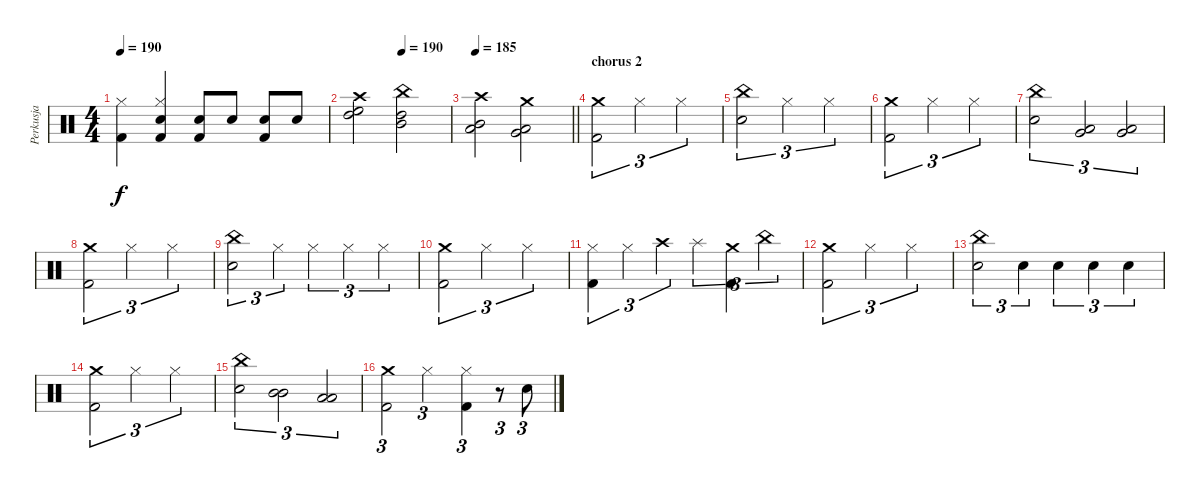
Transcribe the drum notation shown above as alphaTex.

\track ("Perkusja" "Perkusja") {instrument percussion}
\staff {score}
\articulation defaults
\ts (4 4)
\tempo 190
\clef neutral
\ks c
("Kick (hit) 2" "Hi-Hat (closed)").4{dy f} ("Kick (hit) 2" "Hi-Hat (closed)" "Snare (hit) 2").4 ("Snare (hit) 2" "Kick (hit) 2").8 "Snare (hit) 2".8 ("Snare (hit) 2" "Kick (hit) 2").8 "Snare (hit) 2".8 |
\tempo (190 0.5)
("High Floor Tom (hit)" "High Tom (hit)" "Crash high (hit)").2 ("High Tom (hit)" "Mid Tom (hit)" "China (hit)").2 |
\tempo 185
\barLineRight lightlight
("Mid Tom (hit)" "Low Tom (hit)" "Crash high (hit)").2 ("Low Tom (hit)" "Very Low Tom (hit)" "Crash medium (hit)").2 |
\section ("" "chorus 2")
("Kick (hit) 2" "Crash medium (hit)").2{tu (3 2)} "Hi-Hat (closed)".2{tu (3 2)} "Hi-Hat (closed)".2{tu (3 2)} |
("Snare (hit) 2" "China (hit)").2{tu (3 2)} "Hi-Hat (closed)".2{tu (3 2)} "Hi-Hat (closed)".2{tu (3 2)} |
("Kick (hit) 2" "Crash medium (hit)").2{tu (3 2)} "Hi-Hat (closed)".2{tu (3 2)} "Hi-Hat (closed)".2{tu (3 2)} |
("China (hit)" "Snare (hit) 2").2{tu (3 2)} ("Low Tom (hit)" "Very Low Tom (hit)").2{tu (3 2)} ("Very Low Tom (hit)" "Low Floor Tom (hit)").2{tu (3 2)} |
("Kick (hit) 2" "Crash medium (hit)").2{tu (3 2)} "Hi-Hat (closed)".2{tu (3 2)} "Hi-Hat (closed)".2{tu (3 2)} |
("Snare (hit) 2" "China (hit)").2{tu (3 2)} "Hi-Hat (closed)".4{tu (3 2)} "Hi-Hat (closed)".4{tu (3 2)} "Hi-Hat (closed)".4{tu (3 2)} "Hi-Hat (closed)".4{tu (3 2)} |
("Kick (hit) 2" "Crash medium (hit)").2{tu (3 2)} "Hi-Hat (closed)".2{tu (3 2)} "Hi-Hat (closed)".2{tu (3 2)} |
("Hi-Hat (closed)" "Kick (hit) 2").4{tu (3 2)} "Hi-Hat (closed)".4{tu (3 2)} "Crash high (hit)".4{tu (3 2)} "Splash (hit)".4{tu (3 2)} ("Crash medium (hit)" "Kick (hit) 2").4{tu (3 2)} "China (hit)".4{tu (3 2)} |
("Kick (hit) 2" "Crash medium (hit)").2{tu (3 2)} "Hi-Hat (closed)".2{tu (3 2)} "Hi-Hat (closed)".2{tu (3 2)} |
("Snare (hit) 2" "China (hit)").2{tu (3 2)} "Snare (hit) 2".4{tu (3 2)} "Snare (hit) 2".4{tu (3 2)} "Snare (hit) 2".4{tu (3 2)} "Snare (hit) 2".4{tu (3 2)} |
("Kick (hit) 2" "Crash medium (hit)").2{tu (3 2)} "Hi-Hat (closed)".2{tu (3 2)} "Hi-Hat (closed)".2{tu (3 2)} |
("China (hit)" "Snare (hit) 2").2{tu (3 2)} ("Mid Tom (hit)" "Mid Tom (hit)").2{tu (3 2)} ("Low Tom (hit)" "Low Tom (hit)").2{tu (3 2)} |
("Kick (hit) 2" "Crash medium (hit)").2{tu (3 2)} "Hi-Hat (closed)".2{tu (3 2)} ("Kick (hit) 2" "Hi-Hat (closed)").4{tu (3 2)} r.8{tu (3 2)} "Snare (hit) 2".8{tu (3 2)}
